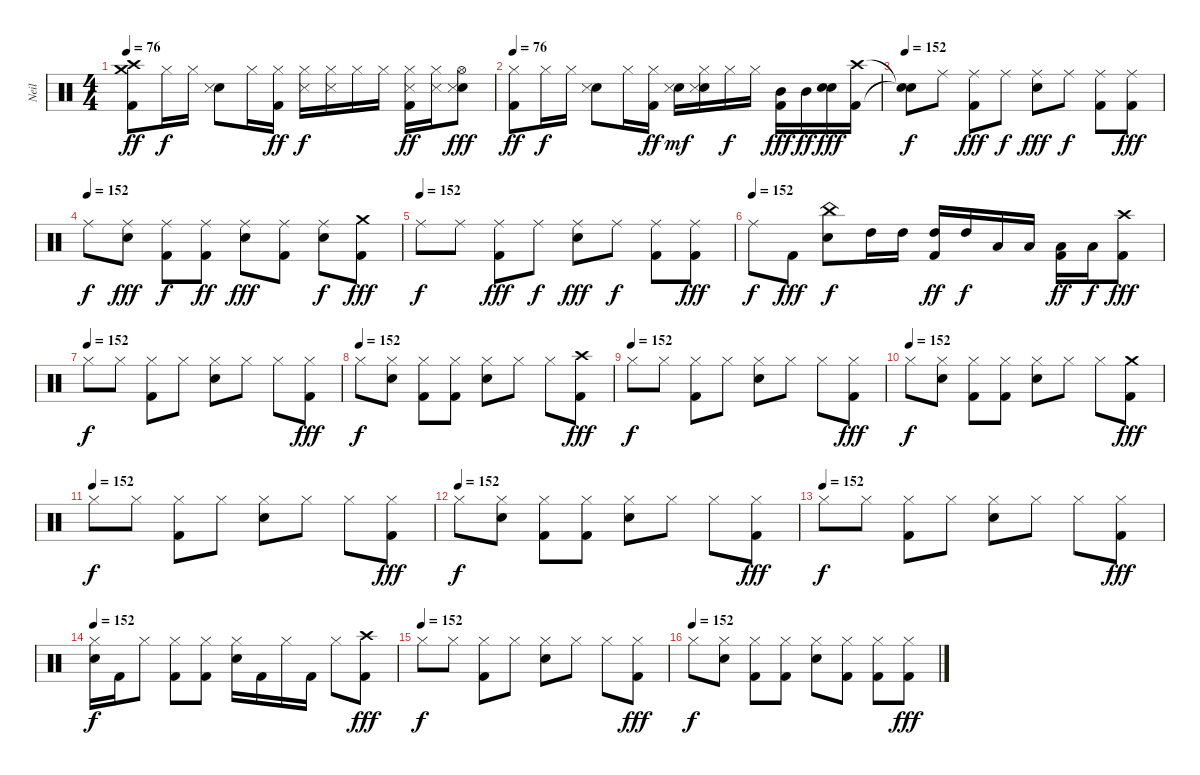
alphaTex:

\track ("Neil" "Neil") {instrument percussion}
\staff {score}
\articulation defaults
\ts (4 4)
\tempo 76
\clef neutral
\ks c
("Crash medium (hit)" "Crash high (hit)" "Kick (hit) 2").8{dy ff} "Hi-Hat (closed)".16{dy f} "Hi-Hat (closed)".16 ("Electric Snare (hit)" "Snare (side stick) 3").8 "Hi-Hat (closed)".16 ("Kick (hit) 2" "Hi-Hat (closed)").16{dy ff} ("Snare (side stick) 3" "Hi-Hat (closed)").16{dy f} ("Snare (side stick) 3" "Hi-Hat (closed)").16 "Hi-Hat (closed)".16 "Hi-Hat (closed)".16 ("Kick (hit) 2" "Snare (side stick) 3" "Hi-Hat (closed)").16{dy ff} ("Snare (side stick) 3" "Hi-Hat (closed)").16 ("Electric Snare (hit)" "Hi-Hat (open)" "Snare (side stick) 3").8{dy fff} |
\tempo 76
("Hi-Hat (closed)" "Kick (hit) 2").8{dy ff} "Hi-Hat (closed)".16{dy f} "Hi-Hat (closed)".16 ("Electric Snare (hit)" "Snare (side stick) 3").8 "Hi-Hat (closed)".16 ("Kick (hit) 2" "Hi-Hat (closed)").16{dy ff} ("Electric Snare (hit)" "Snare (side stick) 3").16{dy mf} ("Electric Snare (hit)" "Hi-Hat (closed)" "Snare (side stick) 3").16 "Hi-Hat (closed)".16{dy f} "Hi-Hat (closed)".16 ("Mid Tom (hit)" "Kick (hit) 2").16{dy fff} "Mid Tom (hit)".16{dy ff} ("Snare (hit) 2" "Snare (hit) 2").16{dy fff} ("Kick (hit) 2" "Crash high (hit)").16 |
\tempo 152
("Snare (hit)"{t} "Snare (hit)"{t}).8{dy f} "Ride (middle)".8 ("Kick (hit) 2" "Ride (middle)").8{dy fff} "Ride (middle)".8{dy f} ("Snare (hit) 2" "Ride (middle)").8{dy fff} "Ride (middle)".8{dy f} ("Kick (hit) 2" "Ride (middle)").8 ("Kick (hit) 2" "Ride (middle)").8{dy fff} |
\tempo (152)
"Ride (middle)".8{dy f} ("Snare (hit) 2" "Ride (middle)").8{dy fff} ("Kick (hit) 2" "Ride (middle)").8{dy f} ("Kick (hit) 2" "Ride (middle)").8{dy ff} ("Snare (hit) 2" "Ride (middle)").8{dy fff} ("Kick (hit) 2" "Ride (middle)").8 ("Snare (hit) 2" "Ride (middle)").8{dy f} ("Kick (hit) 2" "Crash medium (hit)").8{dy fff} |
\tempo (152)
"Ride (middle)".8{dy f} "Ride (middle)".8 ("Kick (hit) 2" "Ride (middle)").8{dy fff} "Ride (middle)".8{dy f} ("Snare (hit) 2" "Ride (middle)").8{dy fff} "Ride (middle)".8{dy f} ("Kick (hit) 2" "Ride (middle)").8 ("Kick (hit) 2" "Ride (middle)").8{dy fff} |
\tempo (152)
"Ride (middle)".8{dy f} "Kick (hit) 2".8{dy fff} ("China (hit)" "Snare (hit) 2").8{dy f} "High Tom (hit)".16 "High Tom (hit)".16 ("Kick (hit) 2" "High Tom (hit)").16{dy ff} "High Tom (hit)".16{dy f} "Low Tom (hit)".16 "Low Tom (hit)".16 ("Kick (hit) 2" "Low Tom (hit)").16{dy ff} "Low Tom (hit)".16{dy f} ("Crash high (hit)" "Kick (hit) 2").8{dy fff} |
\tempo (152)
"Hi-Hat (closed)".8{dy f} "Hi-Hat (closed)".8 ("Hi-Hat (closed)" "Kick (hit) 2").8 "Hi-Hat (closed)".8 ("Hi-Hat (closed)" "Snare (hit) 2").8 "Hi-Hat (closed)".8 "Hi-Hat (closed)".8 ("Hi-Hat (closed)" "Kick (hit) 2").8{dy fff} |
\tempo (152)
"Hi-Hat (closed)".8{dy f} ("Hi-Hat (closed)" "Snare (hit) 2").8 ("Hi-Hat (closed)" "Kick (hit) 2").8 ("Hi-Hat (closed)" "Kick (hit) 2").8 ("Hi-Hat (closed)" "Snare (hit) 2").8 "Hi-Hat (closed)".8 "Hi-Hat (closed)".8 ("Crash high (hit)" "Kick (hit) 2").8{dy fff} |
\tempo (152)
"Hi-Hat (closed)".8{dy f} "Hi-Hat (closed)".8 ("Hi-Hat (closed)" "Kick (hit) 2").8 "Hi-Hat (closed)".8 ("Hi-Hat (closed)" "Snare (hit) 2").8 "Hi-Hat (closed)".8 "Hi-Hat (closed)".8 ("Hi-Hat (closed)" "Kick (hit) 2").8{dy fff} |
\tempo (152)
"Hi-Hat (closed)".8{dy f} ("Hi-Hat (closed)" "Snare (hit) 2").8 ("Hi-Hat (closed)" "Kick (hit) 2").8 ("Hi-Hat (closed)" "Kick (hit) 2").8 ("Hi-Hat (closed)" "Snare (hit) 2").8 "Hi-Hat (closed)".8 "Hi-Hat (closed)".8 ("Crash medium (hit)" "Kick (hit) 2").8{dy fff} |
\tempo (152)
"Hi-Hat (closed)".8{dy f} "Hi-Hat (closed)".8 ("Hi-Hat (closed)" "Kick (hit) 2").8 "Hi-Hat (closed)".8 ("Hi-Hat (closed)" "Snare (hit) 2").8 "Hi-Hat (closed)".8 "Hi-Hat (closed)".8 ("Hi-Hat (closed)" "Kick (hit) 2").8{dy fff} |
\tempo (152)
"Hi-Hat (closed)".8{dy f} ("Hi-Hat (closed)" "Snare (hit) 2").8 ("Hi-Hat (closed)" "Kick (hit) 2").8 ("Hi-Hat (closed)" "Kick (hit) 2").8 ("Hi-Hat (closed)" "Snare (hit) 2").8 "Hi-Hat (closed)".8 "Hi-Hat (closed)".8 ("Hi-Hat (closed)" "Kick (hit) 2").8{dy fff} |
\tempo (152)
"Hi-Hat (closed)".8{dy f} "Hi-Hat (closed)".8 ("Hi-Hat (closed)" "Kick (hit) 2").8 "Hi-Hat (closed)".8 ("Hi-Hat (closed)" "Snare (hit) 2").8 "Hi-Hat (closed)".8 "Hi-Hat (closed)".8 ("Hi-Hat (closed)" "Kick (hit) 2").8{dy fff} |
\tempo 152
("Snare (hit) 2" "Hi-Hat (closed)").16{dy f} "Kick (hit) 2".16 "Hi-Hat (closed)".8 ("Kick (hit) 2" "Hi-Hat (closed)").8 ("Kick (hit) 2" "Hi-Hat (closed)").8 ("Snare (hit) 2" "Hi-Hat (closed)").16 "Kick (hit) 2".16 "Hi-Hat (closed)".16 "Kick (hit) 2".16 "Hi-Hat (closed)".8 ("Crash high (hit)" "Kick (hit) 2").8{dy fff} |
\tempo (152)
"Hi-Hat (closed)".8{dy f} "Hi-Hat (closed)".8 ("Hi-Hat (closed)" "Kick (hit) 2").8 "Hi-Hat (closed)".8 ("Hi-Hat (closed)" "Snare (hit) 2").8 "Hi-Hat (closed)".8 "Hi-Hat (closed)".8 ("Hi-Hat (closed)" "Kick (hit) 2").8{dy fff} |
\tempo (152)
"Hi-Hat (closed)".8{dy f} ("Hi-Hat (closed)" "Snare (hit) 2").8 ("Hi-Hat (closed)" "Kick (hit) 2").8 ("Hi-Hat (closed)" "Kick (hit) 2").8 ("Hi-Hat (closed)" "Snare (hit) 2").8 ("Kick (hit) 2" "Hi-Hat (closed)").8 ("Kick (hit) 2" "Hi-Hat (closed)").8 ("Hi-Hat (closed)" "Kick (hit) 2").8{dy fff}
